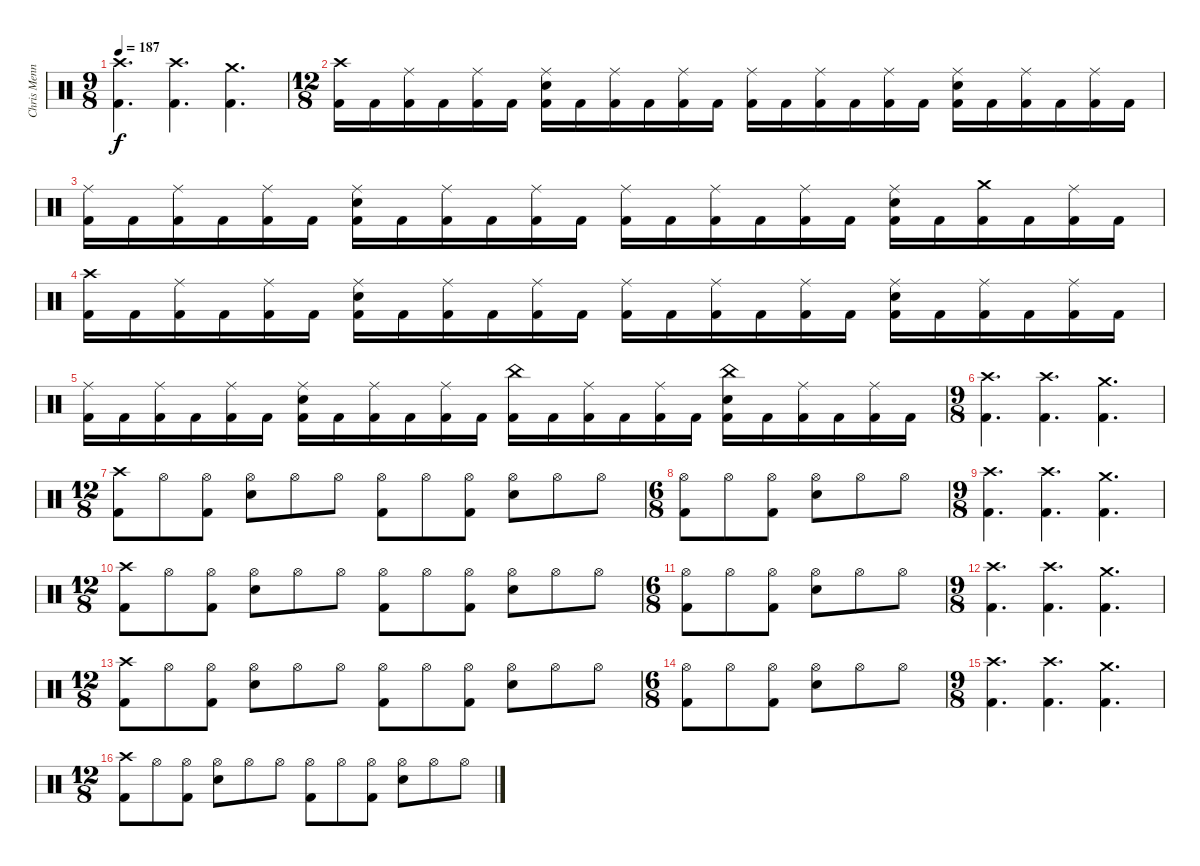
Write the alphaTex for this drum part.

\track ("Chris Menning" "Chris Menn") {instrument percussion}
\staff {score}
\articulation defaults
\ts (9 8)
\tempo 187
\clef neutral
\ks c
("Crash high (hit)" "Kick (hit) 2").4{d dy f} ("Crash high (hit)" "Kick (hit) 2").4{d} ("Crash medium (hit)" "Kick (hit) 2").4{d} |
\ts (12 8)
("Crash high (hit)" "Kick (hit) 2").16 "Kick (hit) 2".16 ("Ride (middle)" "Kick (hit) 2").16 "Kick (hit) 2".16 ("Ride (middle)" "Kick (hit) 2").16 "Kick (hit) 2".16 ("Ride (middle)" "Electric Snare (hit)" "Kick (hit) 2").16 "Kick (hit) 2".16 ("Ride (middle)" "Kick (hit) 2").16 "Kick (hit) 2".16 ("Ride (middle)" "Kick (hit) 2").16 "Kick (hit) 2".16 ("Ride (middle)" "Kick (hit) 2").16 "Kick (hit) 2".16 ("Ride (middle)" "Kick (hit) 2").16 "Kick (hit) 2".16 ("Ride (middle)" "Kick (hit) 2").16 "Kick (hit) 2".16 ("Ride (middle)" "Electric Snare (hit)" "Kick (hit) 2").16 "Kick (hit) 2".16 ("Ride (middle)" "Kick (hit) 2").16 "Kick (hit) 2".16 ("Ride (middle)" "Kick (hit) 2").16 "Kick (hit) 2".16 |
("Ride (middle)" "Kick (hit) 2").16 "Kick (hit) 2".16 ("Ride (middle)" "Kick (hit) 2").16 "Kick (hit) 2".16 ("Ride (middle)" "Kick (hit) 2").16 "Kick (hit) 2".16 ("Ride (middle)" "Electric Snare (hit)" "Kick (hit) 2").16 "Kick (hit) 2".16 ("Ride (middle)" "Kick (hit) 2").16 "Kick (hit) 2".16 ("Ride (middle)" "Kick (hit) 2").16 "Kick (hit) 2".16 ("Ride (middle)" "Kick (hit) 2").16 "Kick (hit) 2".16 ("Ride (middle)" "Kick (hit) 2").16 "Kick (hit) 2".16 ("Ride (middle)" "Kick (hit) 2").16 "Kick (hit) 2".16 ("Ride (middle)" "Electric Snare (hit)" "Kick (hit) 2").16 "Kick (hit) 2".16 ("Crash medium (hit)" "Kick (hit) 2").16 "Kick (hit) 2".16 ("Ride (middle)" "Kick (hit) 2").16 "Kick (hit) 2".16 |
("Crash high (hit)" "Kick (hit) 2").16 "Kick (hit) 2".16 ("Ride (middle)" "Kick (hit) 2").16 "Kick (hit) 2".16 ("Ride (middle)" "Kick (hit) 2").16 "Kick (hit) 2".16 ("Ride (middle)" "Electric Snare (hit)" "Kick (hit) 2").16 "Kick (hit) 2".16 ("Ride (middle)" "Kick (hit) 2").16 "Kick (hit) 2".16 ("Ride (middle)" "Kick (hit) 2").16 "Kick (hit) 2".16 ("Ride (middle)" "Kick (hit) 2").16 "Kick (hit) 2".16 ("Ride (middle)" "Kick (hit) 2").16 "Kick (hit) 2".16 ("Ride (middle)" "Kick (hit) 2").16 "Kick (hit) 2".16 ("Ride (middle)" "Electric Snare (hit)" "Kick (hit) 2").16 "Kick (hit) 2".16 ("Ride (middle)" "Kick (hit) 2").16 "Kick (hit) 2".16 ("Ride (middle)" "Kick (hit) 2").16 "Kick (hit) 2".16 |
("Ride (middle)" "Kick (hit) 2").16 "Kick (hit) 2".16 ("Ride (middle)" "Kick (hit) 2").16 "Kick (hit) 2".16 ("Ride (middle)" "Kick (hit) 2").16 "Kick (hit) 2".16 ("Ride (middle)" "Electric Snare (hit)" "Kick (hit) 2").16 "Kick (hit) 2".16 ("Ride (middle)" "Kick (hit) 2").16 "Kick (hit) 2".16 ("Ride (middle)" "Kick (hit) 2").16 "Kick (hit) 2".16 ("China (hit)" "Kick (hit) 2").16 "Kick (hit) 2".16 ("Ride (middle)" "Kick (hit) 2").16 "Kick (hit) 2".16 ("Ride (middle)" "Kick (hit) 2").16 "Kick (hit) 2".16 ("China (hit)" "Electric Snare (hit)" "Kick (hit) 2").16 "Kick (hit) 2".16 ("Ride (middle)" "Kick (hit) 2").16 "Kick (hit) 2".16 ("Ride (middle)" "Kick (hit) 2").16 "Kick (hit) 2".16 |
\ts (9 8)
("Crash high (hit)" "Kick (hit) 2").4{d} ("Crash high (hit)" "Kick (hit) 2").4{d} ("Crash medium (hit)" "Kick (hit) 2").4{d} |
\ts (12 8)
("Crash high (hit)" "Kick (hit) 2").8 "Hi-Hat (open)".8 ("Hi-Hat (open)" "Kick (hit) 2").8 ("Hi-Hat (open)" "Electric Snare (hit)").8 "Hi-Hat (open)".8 "Hi-Hat (open)".8 ("Hi-Hat (open)" "Kick (hit) 2").8 "Hi-Hat (open)".8 ("Hi-Hat (open)" "Kick (hit) 2").8 ("Hi-Hat (open)" "Electric Snare (hit)").8 "Hi-Hat (open)".8 "Hi-Hat (open)".8 |
\ts (6 8)
("Hi-Hat (open)" "Kick (hit) 2").8 "Hi-Hat (open)".8 ("Hi-Hat (open)" "Kick (hit) 2").8 ("Hi-Hat (open)" "Electric Snare (hit)").8 "Hi-Hat (open)".8 "Hi-Hat (open)".8 |
\ts (9 8)
("Crash high (hit)" "Kick (hit) 2").4{d} ("Crash high (hit)" "Kick (hit) 2").4{d} ("Crash medium (hit)" "Kick (hit) 2").4{d} |
\ts (12 8)
("Crash high (hit)" "Kick (hit) 2").8 "Hi-Hat (open)".8 ("Hi-Hat (open)" "Kick (hit) 2").8 ("Hi-Hat (open)" "Electric Snare (hit)").8 "Hi-Hat (open)".8 "Hi-Hat (open)".8 ("Hi-Hat (open)" "Kick (hit) 2").8 "Hi-Hat (open)".8 ("Hi-Hat (open)" "Kick (hit) 2").8 ("Hi-Hat (open)" "Electric Snare (hit)").8 "Hi-Hat (open)".8 "Hi-Hat (open)".8 |
\ts (6 8)
("Hi-Hat (open)" "Kick (hit) 2").8 "Hi-Hat (open)".8 ("Hi-Hat (open)" "Kick (hit) 2").8 ("Hi-Hat (open)" "Electric Snare (hit)").8 "Hi-Hat (open)".8 "Hi-Hat (open)".8 |
\ts (9 8)
("Crash high (hit)" "Kick (hit) 2").4{d} ("Crash high (hit)" "Kick (hit) 2").4{d} ("Crash medium (hit)" "Kick (hit) 2").4{d} |
\ts (12 8)
("Crash high (hit)" "Kick (hit) 2").8 "Hi-Hat (open)".8 ("Hi-Hat (open)" "Kick (hit) 2").8 ("Hi-Hat (open)" "Electric Snare (hit)").8 "Hi-Hat (open)".8 "Hi-Hat (open)".8 ("Hi-Hat (open)" "Kick (hit) 2").8 "Hi-Hat (open)".8 ("Hi-Hat (open)" "Kick (hit) 2").8 ("Hi-Hat (open)" "Electric Snare (hit)").8 "Hi-Hat (open)".8 "Hi-Hat (open)".8 |
\ts (6 8)
("Hi-Hat (open)" "Kick (hit) 2").8 "Hi-Hat (open)".8 ("Hi-Hat (open)" "Kick (hit) 2").8 ("Hi-Hat (open)" "Electric Snare (hit)").8 "Hi-Hat (open)".8 "Hi-Hat (open)".8 |
\ts (9 8)
("Crash high (hit)" "Kick (hit) 2").4{d} ("Crash high (hit)" "Kick (hit) 2").4{d} ("Crash medium (hit)" "Kick (hit) 2").4{d} |
\ts (12 8)
("Crash high (hit)" "Kick (hit) 2").8 "Hi-Hat (open)".8 ("Hi-Hat (open)" "Kick (hit) 2").8 ("Hi-Hat (open)" "Electric Snare (hit)").8 "Hi-Hat (open)".8 "Hi-Hat (open)".8 ("Hi-Hat (open)" "Kick (hit) 2").8 "Hi-Hat (open)".8 ("Hi-Hat (open)" "Kick (hit) 2").8 ("Hi-Hat (open)" "Electric Snare (hit)").8 "Hi-Hat (open)".8 "Hi-Hat (open)".8
